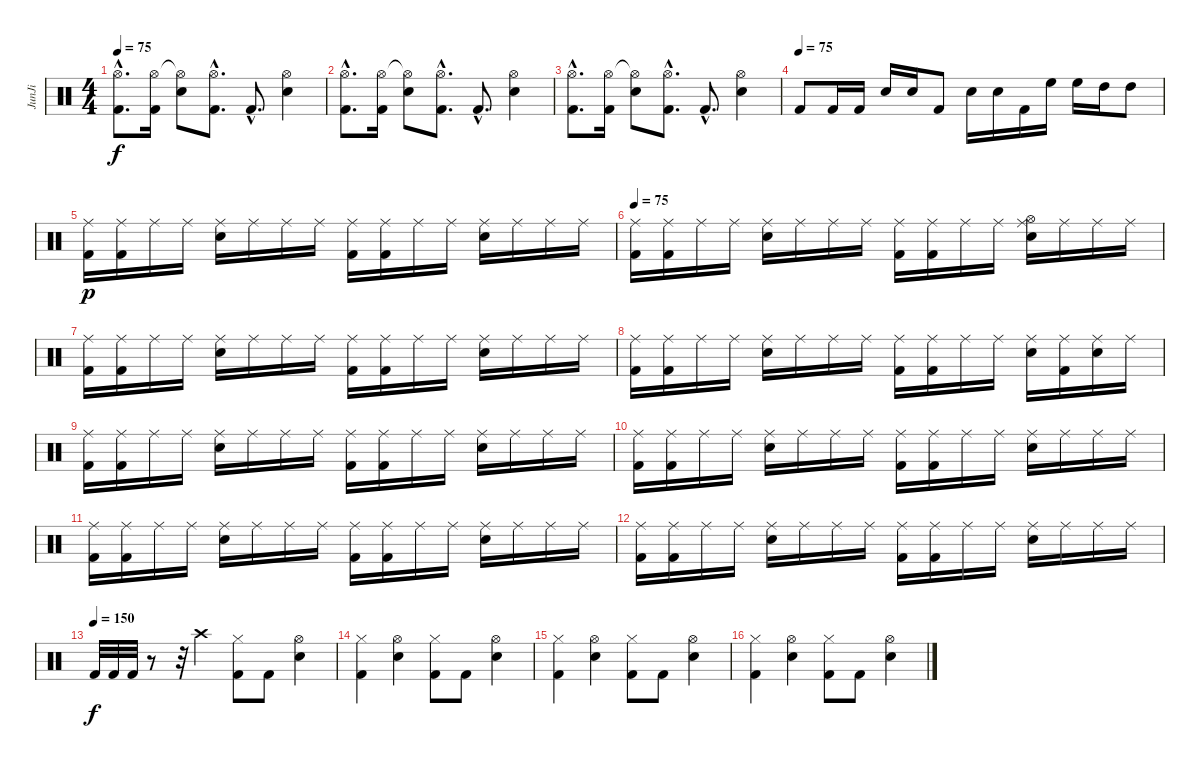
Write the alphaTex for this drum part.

\track ("JunJi" "JunJi") {instrument percussion}
\staff {score}
\articulation defaults
\ts (4 4)
\tempo 75
\clef neutral
\ks c
("Kick (hit) 2"{hac} "Hi-Hat (open)"{hac}).8{d dy f} ("Kick (hit) 2" "Hi-Hat (open)").16 ("Electric Snare (hit)" "Hi-Hat (open)"{t}).8 ("Kick (hit) 2"{hac} "Hi-Hat (open)"{hac}).8{d} "Kick (hit) 2"{hac}.8{d} ("Electric Snare (hit)" "Hi-Hat (open)").4 |
("Kick (hit) 2"{hac} "Hi-Hat (open)"{hac}).8{d} ("Kick (hit) 2" "Hi-Hat (open)").16 ("Electric Snare (hit)" "Hi-Hat (open)"{t}).8 ("Kick (hit) 2"{hac} "Hi-Hat (open)"{hac}).8{d} "Kick (hit) 2"{hac}.8{d} ("Electric Snare (hit)" "Hi-Hat (open)").4 |
("Kick (hit) 2"{hac} "Hi-Hat (open)"{hac}).8{d} ("Kick (hit) 2" "Hi-Hat (open)").16 ("Electric Snare (hit)" "Hi-Hat (open)"{t}).8 ("Kick (hit) 2"{hac} "Hi-Hat (open)"{hac}).8{d} "Kick (hit) 2"{hac}.8{d} ("Electric Snare (hit)" "Hi-Hat (open)").4 |
\tempo (75)
"Kick (hit) 2".8 "Kick (hit) 2".16 "Kick (hit) 2".16 "Electric Snare (hit)".16 "Electric Snare (hit)".16 "Kick (hit) 2".8 "Electric Snare (hit)".16 "Electric Snare (hit)".16 "Kick (hit) 2".16 "High Floor Tom (hit)".16 "High Floor Tom (hit)".16 "High Tom (hit)".16 "High Tom (hit)".8 |
("Ride (middle)" "Kick (hit) 2").16{dy p} ("Ride (middle)" "Kick (hit) 2").16 "Ride (middle)".16 "Ride (middle)".16 ("Ride (middle)" "Electric Snare (hit)").16 "Ride (middle)".16 "Ride (middle)".16 "Ride (middle)".16 ("Ride (middle)" "Kick (hit) 2").16 ("Ride (middle)" "Kick (hit) 2").16 "Ride (middle)".16 "Ride (middle)".16 ("Ride (middle)" "Electric Snare (hit)").16 "Ride (middle)".16 "Ride (middle)".16 "Ride (middle)".16 |
\tempo 75
("Ride (middle)" "Kick (hit) 2").16 ("Ride (middle)" "Kick (hit) 2").16 "Ride (middle)".16 "Ride (middle)".16 ("Ride (middle)" "Electric Snare (hit)").16 "Ride (middle)".16 "Ride (middle)".16 "Ride (middle)".16 ("Ride (middle)" "Kick (hit) 2").16 ("Ride (middle)" "Kick (hit) 2").16 "Ride (middle)".16 "Ride (middle)".16 ("Ride (middle)" "Electric Snare (hit)" "Hi-Hat (open)").16 "Ride (middle)".16 "Ride (middle)".16 "Ride (middle)".16 |
("Ride (middle)" "Kick (hit) 2").16 ("Ride (middle)" "Kick (hit) 2").16 "Ride (middle)".16 "Ride (middle)".16 ("Ride (middle)" "Electric Snare (hit)").16 "Ride (middle)".16 "Ride (middle)".16 "Ride (middle)".16 ("Ride (middle)" "Kick (hit) 2").16 ("Ride (middle)" "Kick (hit) 2").16 "Ride (middle)".16 "Ride (middle)".16 ("Ride (middle)" "Electric Snare (hit)").16 "Ride (middle)".16 "Ride (middle)".16 "Ride (middle)".16 |
("Ride (middle)" "Kick (hit) 2").16 ("Ride (middle)" "Kick (hit) 2").16 "Ride (middle)".16 "Ride (middle)".16 ("Ride (middle)" "Electric Snare (hit)").16 "Ride (middle)".16 "Ride (middle)".16 "Ride (middle)".16 ("Ride (middle)" "Kick (hit) 2").16 ("Ride (middle)" "Kick (hit) 2").16 "Ride (middle)".16 "Ride (middle)".16 ("Ride (middle)" "Electric Snare (hit)").16 ("Ride (middle)" "Kick (hit) 2").16 ("Ride (middle)" "Electric Snare (hit)").16 "Ride (middle)".16 |
("Ride (middle)" "Kick (hit) 2").16 ("Ride (middle)" "Kick (hit) 2").16 "Ride (middle)".16 "Ride (middle)".16 ("Ride (middle)" "Electric Snare (hit)").16 "Ride (middle)".16 "Ride (middle)".16 "Ride (middle)".16 ("Ride (middle)" "Kick (hit) 2").16 ("Ride (middle)" "Kick (hit) 2").16 "Ride (middle)".16 "Ride (middle)".16 ("Ride (middle)" "Electric Snare (hit)").16 "Ride (middle)".16 "Ride (middle)".16 "Ride (middle)".16 |
("Ride (middle)" "Kick (hit) 2").16 ("Ride (middle)" "Kick (hit) 2").16 "Ride (middle)".16 "Ride (middle)".16 ("Ride (middle)" "Electric Snare (hit)").16 "Ride (middle)".16 "Ride (middle)".16 "Ride (middle)".16 ("Ride (middle)" "Kick (hit) 2").16 ("Ride (middle)" "Kick (hit) 2").16 "Ride (middle)".16 "Ride (middle)".16 ("Ride (middle)" "Electric Snare (hit)").16 "Ride (middle)".16 "Ride (middle)".16 "Ride (middle)".16 |
("Ride (middle)" "Kick (hit) 2").16 ("Ride (middle)" "Kick (hit) 2").16 "Ride (middle)".16 "Ride (middle)".16 ("Ride (middle)" "Electric Snare (hit)").16 "Ride (middle)".16 "Ride (middle)".16 "Ride (middle)".16 ("Ride (middle)" "Kick (hit) 2").16 ("Ride (middle)" "Kick (hit) 2").16 "Ride (middle)".16 "Ride (middle)".16 ("Ride (middle)" "Electric Snare (hit)").16 "Ride (middle)".16 "Ride (middle)".16 "Ride (middle)".16 |
("Ride (middle)" "Kick (hit) 2").16 ("Ride (middle)" "Kick (hit) 2").16 "Ride (middle)".16 "Ride (middle)".16 ("Ride (middle)" "Electric Snare (hit)").16 "Ride (middle)".16 "Ride (middle)".16 "Ride (middle)".16 ("Ride (middle)" "Kick (hit) 2").16 ("Ride (middle)" "Kick (hit) 2").16 "Ride (middle)".16 "Ride (middle)".16 ("Ride (middle)" "Electric Snare (hit)").16 "Ride (middle)".16 "Ride (middle)".16 "Ride (middle)".16 |
\tempo (150)
"Kick (hit) 2".32{dy f} "Kick (hit) 2".32 "Kick (hit) 2".32 r.8 r.32 "Crash high (hit)".4 ("Hi-Hat (closed)" "Kick (hit) 2").8 "Kick (hit) 2".8 ("Electric Snare (hit)" "Hi-Hat (open)").4 |
("Hi-Hat (closed)" "Kick (hit) 2").4 ("Electric Snare (hit)" "Hi-Hat (open)").4 ("Hi-Hat (closed)" "Kick (hit) 2").8 "Kick (hit) 2".8 ("Electric Snare (hit)" "Hi-Hat (open)").4 |
("Hi-Hat (closed)" "Kick (hit) 2").4 ("Electric Snare (hit)" "Hi-Hat (open)").4 ("Hi-Hat (closed)" "Kick (hit) 2").8 "Kick (hit) 2".8 ("Electric Snare (hit)" "Hi-Hat (open)").4 |
("Hi-Hat (closed)" "Kick (hit) 2").4 ("Electric Snare (hit)" "Hi-Hat (open)").4 ("Hi-Hat (closed)" "Kick (hit) 2").8 "Kick (hit) 2".8 ("Electric Snare (hit)" "Hi-Hat (open)").4
